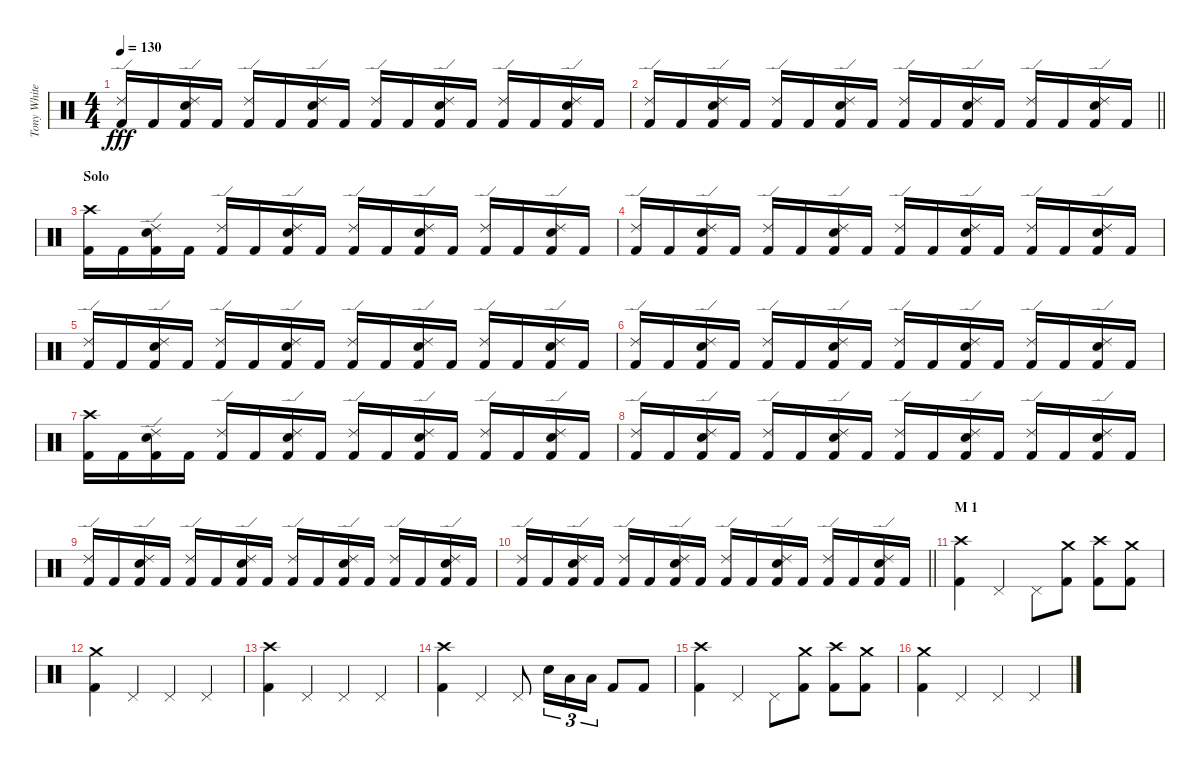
\track ("Tony White" "Tony White") {instrument percussion}
\staff {score}
\articulation defaults
\ts (4 4)
\tempo 130
\clef neutral
\ks c
("Ride (edge) 2" "Kick (hit) 2").16{dy fff} "Kick (hit) 2".16 ("Ride (edge) 2" "Electric Snare (hit)" "Kick (hit) 2").16 "Kick (hit) 2".16 ("Ride (edge) 2" "Kick (hit) 2").16 "Kick (hit) 2".16 ("Ride (edge) 2" "Electric Snare (hit)" "Kick (hit) 2").16 "Kick (hit) 2".16 ("Ride (edge) 2" "Kick (hit) 2").16 "Kick (hit) 2".16 ("Ride (edge) 2" "Electric Snare (hit)" "Kick (hit) 2").16 "Kick (hit) 2".16 ("Ride (edge) 2" "Kick (hit) 2").16 "Kick (hit) 2".16 ("Ride (edge) 2" "Electric Snare (hit)" "Kick (hit) 2").16 "Kick (hit) 2".16 |
\barLineRight lightlight
("Ride (edge) 2" "Kick (hit) 2").16 "Kick (hit) 2".16 ("Ride (edge) 2" "Electric Snare (hit)" "Kick (hit) 2").16 "Kick (hit) 2".16 ("Ride (edge) 2" "Kick (hit) 2").16 "Kick (hit) 2".16 ("Ride (edge) 2" "Electric Snare (hit)" "Kick (hit) 2").16 "Kick (hit) 2".16 ("Ride (edge) 2" "Kick (hit) 2").16 "Kick (hit) 2".16 ("Ride (edge) 2" "Electric Snare (hit)" "Kick (hit) 2").16 "Kick (hit) 2".16 ("Ride (edge) 2" "Kick (hit) 2").16 "Kick (hit) 2".16 ("Ride (edge) 2" "Electric Snare (hit)" "Kick (hit) 2").16 "Kick (hit) 2".16 |
\section ("" "Solo")
("Crash high (hit)" "Kick (hit) 2").16 "Kick (hit) 2".16 ("Ride (edge) 2" "Electric Snare (hit)" "Kick (hit) 2").16 "Kick (hit) 2".16 ("Ride (edge) 2" "Kick (hit) 2").16 "Kick (hit) 2".16 ("Ride (edge) 2" "Electric Snare (hit)" "Kick (hit) 2").16 "Kick (hit) 2".16 ("Ride (edge) 2" "Kick (hit) 2").16 "Kick (hit) 2".16 ("Ride (edge) 2" "Electric Snare (hit)" "Kick (hit) 2").16 "Kick (hit) 2".16 ("Ride (edge) 2" "Kick (hit) 2").16 "Kick (hit) 2".16 ("Ride (edge) 2" "Electric Snare (hit)" "Kick (hit) 2").16 "Kick (hit) 2".16 |
("Ride (edge) 2" "Kick (hit) 2").16 "Kick (hit) 2".16 ("Ride (edge) 2" "Electric Snare (hit)" "Kick (hit) 2").16 "Kick (hit) 2".16 ("Ride (edge) 2" "Kick (hit) 2").16 "Kick (hit) 2".16 ("Ride (edge) 2" "Electric Snare (hit)" "Kick (hit) 2").16 "Kick (hit) 2".16 ("Ride (edge) 2" "Kick (hit) 2").16 "Kick (hit) 2".16 ("Ride (edge) 2" "Electric Snare (hit)" "Kick (hit) 2").16 "Kick (hit) 2".16 ("Ride (edge) 2" "Kick (hit) 2").16 "Kick (hit) 2".16 ("Ride (edge) 2" "Electric Snare (hit)" "Kick (hit) 2").16 "Kick (hit) 2".16 |
("Ride (edge) 2" "Kick (hit) 2").16 "Kick (hit) 2".16 ("Ride (edge) 2" "Electric Snare (hit)" "Kick (hit) 2").16 "Kick (hit) 2".16 ("Ride (edge) 2" "Kick (hit) 2").16 "Kick (hit) 2".16 ("Ride (edge) 2" "Electric Snare (hit)" "Kick (hit) 2").16 "Kick (hit) 2".16 ("Ride (edge) 2" "Kick (hit) 2").16 "Kick (hit) 2".16 ("Ride (edge) 2" "Electric Snare (hit)" "Kick (hit) 2").16 "Kick (hit) 2".16 ("Ride (edge) 2" "Kick (hit) 2").16 "Kick (hit) 2".16 ("Ride (edge) 2" "Electric Snare (hit)" "Kick (hit) 2").16 "Kick (hit) 2".16 |
("Ride (edge) 2" "Kick (hit) 2").16 "Kick (hit) 2".16 ("Ride (edge) 2" "Electric Snare (hit)" "Kick (hit) 2").16 "Kick (hit) 2".16 ("Ride (edge) 2" "Kick (hit) 2").16 "Kick (hit) 2".16 ("Ride (edge) 2" "Electric Snare (hit)" "Kick (hit) 2").16 "Kick (hit) 2".16 ("Ride (edge) 2" "Kick (hit) 2").16 "Kick (hit) 2".16 ("Ride (edge) 2" "Electric Snare (hit)" "Kick (hit) 2").16 "Kick (hit) 2".16 ("Ride (edge) 2" "Kick (hit) 2").16 "Kick (hit) 2".16 ("Ride (edge) 2" "Electric Snare (hit)" "Kick (hit) 2").16 "Kick (hit) 2".16 |
("Crash high (hit)" "Kick (hit) 2").16 "Kick (hit) 2".16 ("Ride (edge) 2" "Electric Snare (hit)" "Kick (hit) 2").16 "Kick (hit) 2".16 ("Ride (edge) 2" "Kick (hit) 2").16 "Kick (hit) 2".16 ("Ride (edge) 2" "Electric Snare (hit)" "Kick (hit) 2").16 "Kick (hit) 2".16 ("Ride (edge) 2" "Kick (hit) 2").16 "Kick (hit) 2".16 ("Ride (edge) 2" "Electric Snare (hit)" "Kick (hit) 2").16 "Kick (hit) 2".16 ("Ride (edge) 2" "Kick (hit) 2").16 "Kick (hit) 2".16 ("Ride (edge) 2" "Electric Snare (hit)" "Kick (hit) 2").16 "Kick (hit) 2".16 |
("Ride (edge) 2" "Kick (hit) 2").16 "Kick (hit) 2".16 ("Ride (edge) 2" "Electric Snare (hit)" "Kick (hit) 2").16 "Kick (hit) 2".16 ("Ride (edge) 2" "Kick (hit) 2").16 "Kick (hit) 2".16 ("Ride (edge) 2" "Electric Snare (hit)" "Kick (hit) 2").16 "Kick (hit) 2".16 ("Ride (edge) 2" "Kick (hit) 2").16 "Kick (hit) 2".16 ("Ride (edge) 2" "Electric Snare (hit)" "Kick (hit) 2").16 "Kick (hit) 2".16 ("Ride (edge) 2" "Kick (hit) 2").16 "Kick (hit) 2".16 ("Ride (edge) 2" "Electric Snare (hit)" "Kick (hit) 2").16 "Kick (hit) 2".16 |
("Ride (edge) 2" "Kick (hit) 2").16 "Kick (hit) 2".16 ("Ride (edge) 2" "Electric Snare (hit)" "Kick (hit) 2").16 "Kick (hit) 2".16 ("Ride (edge) 2" "Kick (hit) 2").16 "Kick (hit) 2".16 ("Ride (edge) 2" "Electric Snare (hit)" "Kick (hit) 2").16 "Kick (hit) 2".16 ("Ride (edge) 2" "Kick (hit) 2").16 "Kick (hit) 2".16 ("Ride (edge) 2" "Electric Snare (hit)" "Kick (hit) 2").16 "Kick (hit) 2".16 ("Ride (edge) 2" "Kick (hit) 2").16 "Kick (hit) 2".16 ("Ride (edge) 2" "Electric Snare (hit)" "Kick (hit) 2").16 "Kick (hit) 2".16 |
\barLineRight lightlight
("Ride (edge) 2" "Kick (hit) 2").16 "Kick (hit) 2".16 ("Ride (edge) 2" "Electric Snare (hit)" "Kick (hit) 2").16 "Kick (hit) 2".16 ("Ride (edge) 2" "Kick (hit) 2").16 "Kick (hit) 2".16 ("Ride (edge) 2" "Electric Snare (hit)" "Kick (hit) 2").16 "Kick (hit) 2".16 ("Ride (edge) 2" "Kick (hit) 2").16 "Kick (hit) 2".16 ("Ride (edge) 2" "Electric Snare (hit)" "Kick (hit) 2").16 "Kick (hit) 2".16 ("Ride (edge) 2" "Kick (hit) 2").16 "Kick (hit) 2".16 ("Ride (edge) 2" "Electric Snare (hit)" "Kick (hit) 2").16 "Kick (hit) 2".16 |
\section ("" "M 1")
("Crash high (hit)" "Kick (hit) 2").4 "Pedal Hi-Hat (hit)".4 "Pedal Hi-Hat (hit)".8 ("Crash medium (hit)" "Kick (hit) 2").8 ("Crash high (hit)" "Kick (hit) 2").8 ("Crash medium (hit)" "Kick (hit) 2").8 |
("Crash medium (hit)" "Kick (hit) 2").4 "Pedal Hi-Hat (hit)".4 "Pedal Hi-Hat (hit)".4 "Pedal Hi-Hat (hit)".4 |
("Crash high (hit)" "Kick (hit) 2").4 "Pedal Hi-Hat (hit)".4 "Pedal Hi-Hat (hit)".4 "Pedal Hi-Hat (hit)".4 |
("Crash high (hit)" "Kick (hit) 2").4 "Pedal Hi-Hat (hit)".4 "Pedal Hi-Hat (hit)".8 "Electric Snare (hit)".16{tu (3 2)} "Low Tom (hit)".16{tu (3 2)} "Low Floor Tom (hit)".16{tu (3 2)} "Kick (hit) 2".8 "Kick (hit) 2".8 |
("Crash high (hit)" "Kick (hit) 2").4 "Pedal Hi-Hat (hit)".4 "Pedal Hi-Hat (hit)".8 ("Crash medium (hit)" "Kick (hit) 2").8 ("Crash high (hit)" "Kick (hit) 2").8 ("Crash medium (hit)" "Kick (hit) 2").8 |
("Crash medium (hit)" "Kick (hit) 2").4 "Pedal Hi-Hat (hit)".4 "Pedal Hi-Hat (hit)".4 "Pedal Hi-Hat (hit)".4
